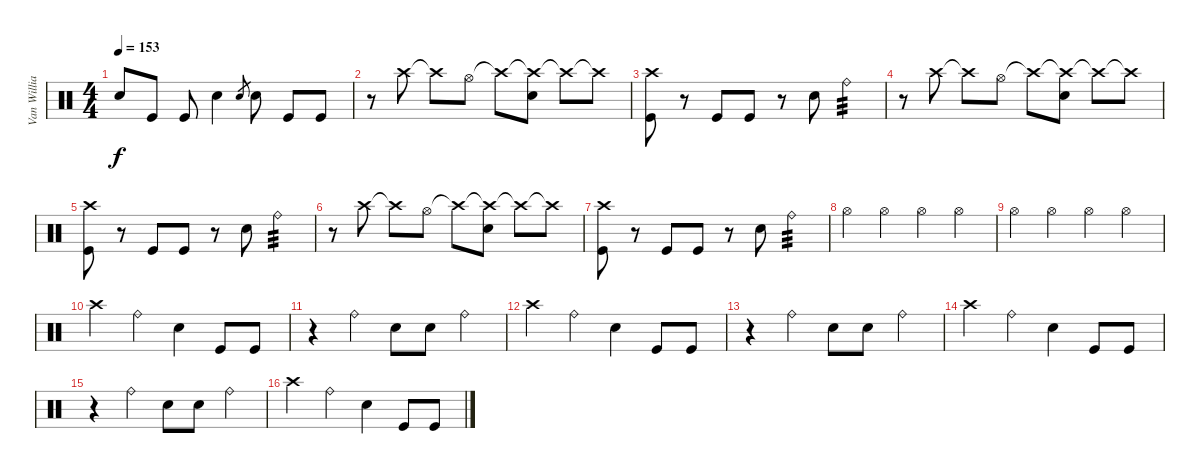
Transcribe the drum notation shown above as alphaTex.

\track ("Van Williams" "Van Willia") {instrument percussion}
\staff {score}
\articulation defaults
\ts (4 4)
\tempo 153
\clef neutral
\ks c "Electric Snare (hit)".8{dy f} "Kick (hit)".8 "Kick (hit)".8 "Electric Snare (hit)".4 "Electric Snare (hit)".8{gr} "Electric Snare (hit)".8 "Kick (hit)".8 "Kick (hit)".8
|
r.8 "Crash high (hit)".8 "Crash high (hit)"{t}.8 "Hi-Hat (open)".8 "Crash high (hit)"{t}.8 ("Crash high (hit)"{t} "Electric Snare (hit)").8 "Crash high (hit)"{t}.8 "Crash high (hit)"{t}.8 |
("Crash high (hit)" "Kick (hit)").8 r.8 "Kick (hit)".8 "Kick (hit)".8 r.8 "Electric Snare (hit)".8 "Ride (bell)".4{tp 3} |
r.8 "Crash high (hit)".8 "Crash high (hit)"{t}.8 "Hi-Hat (open)".8 "Crash high (hit)"{t}.8 ("Crash high (hit)"{t} "Electric Snare (hit)").8 "Crash high (hit)"{t}.8 "Crash high (hit)"{t}.8 |
("Crash high (hit)" "Kick (hit)").8 r.8 "Kick (hit)".8 "Kick (hit)".8 r.8 "Electric Snare (hit)".8 "Ride (bell)".4{tp 3} |
r.8 "Crash high (hit)".8 "Crash high (hit)"{t}.8 "Hi-Hat (open)".8 "Crash high (hit)"{t}.8 ("Crash high (hit)"{t} "Electric Snare (hit)").8 "Crash high (hit)"{t}.8 "Crash high (hit)"{t}.8 |
("Crash high (hit)" "Kick (hit)").8 r.8 "Kick (hit)".8 "Kick (hit)".8 r.8 "Electric Snare (hit)".8 "Ride (bell)".4{tp 3} |
"Hi-Hat (open)".4 "Hi-Hat (open)".4 "Hi-Hat (open)".4 "Hi-Hat (open)".4 |
"Hi-Hat (open)".4 "Hi-Hat (open)".4 "Hi-Hat (open)".4 "Hi-Hat (open)".4 |
"Crash high (hit)".4 "Ride (bell)".4 "Electric Snare (hit)".4 "Kick (hit)".8 "Kick (hit)".8 |
r.4 "Ride (bell)".4 "Electric Snare (hit)".8 "Electric Snare (hit)".8 "Ride (bell)".4 |
"Crash high (hit)".4 "Ride (bell)".4 "Electric Snare (hit)".4 "Kick (hit)".8 "Kick (hit)".8 |
r.4 "Ride (bell)".4 "Electric Snare (hit)".8 "Electric Snare (hit)".8 "Ride (bell)".4 |
"Crash high (hit)".4 "Ride (bell)".4 "Electric Snare (hit)".4 "Kick (hit)".8 "Kick (hit)".8 |
r.4 "Ride (bell)".4 "Electric Snare (hit)".8 "Electric Snare (hit)".8 "Ride (bell)".4 |
"Crash high (hit)".4 "Ride (bell)".4 "Electric Snare (hit)".4 "Kick (hit)".8 "Kick (hit)".8
